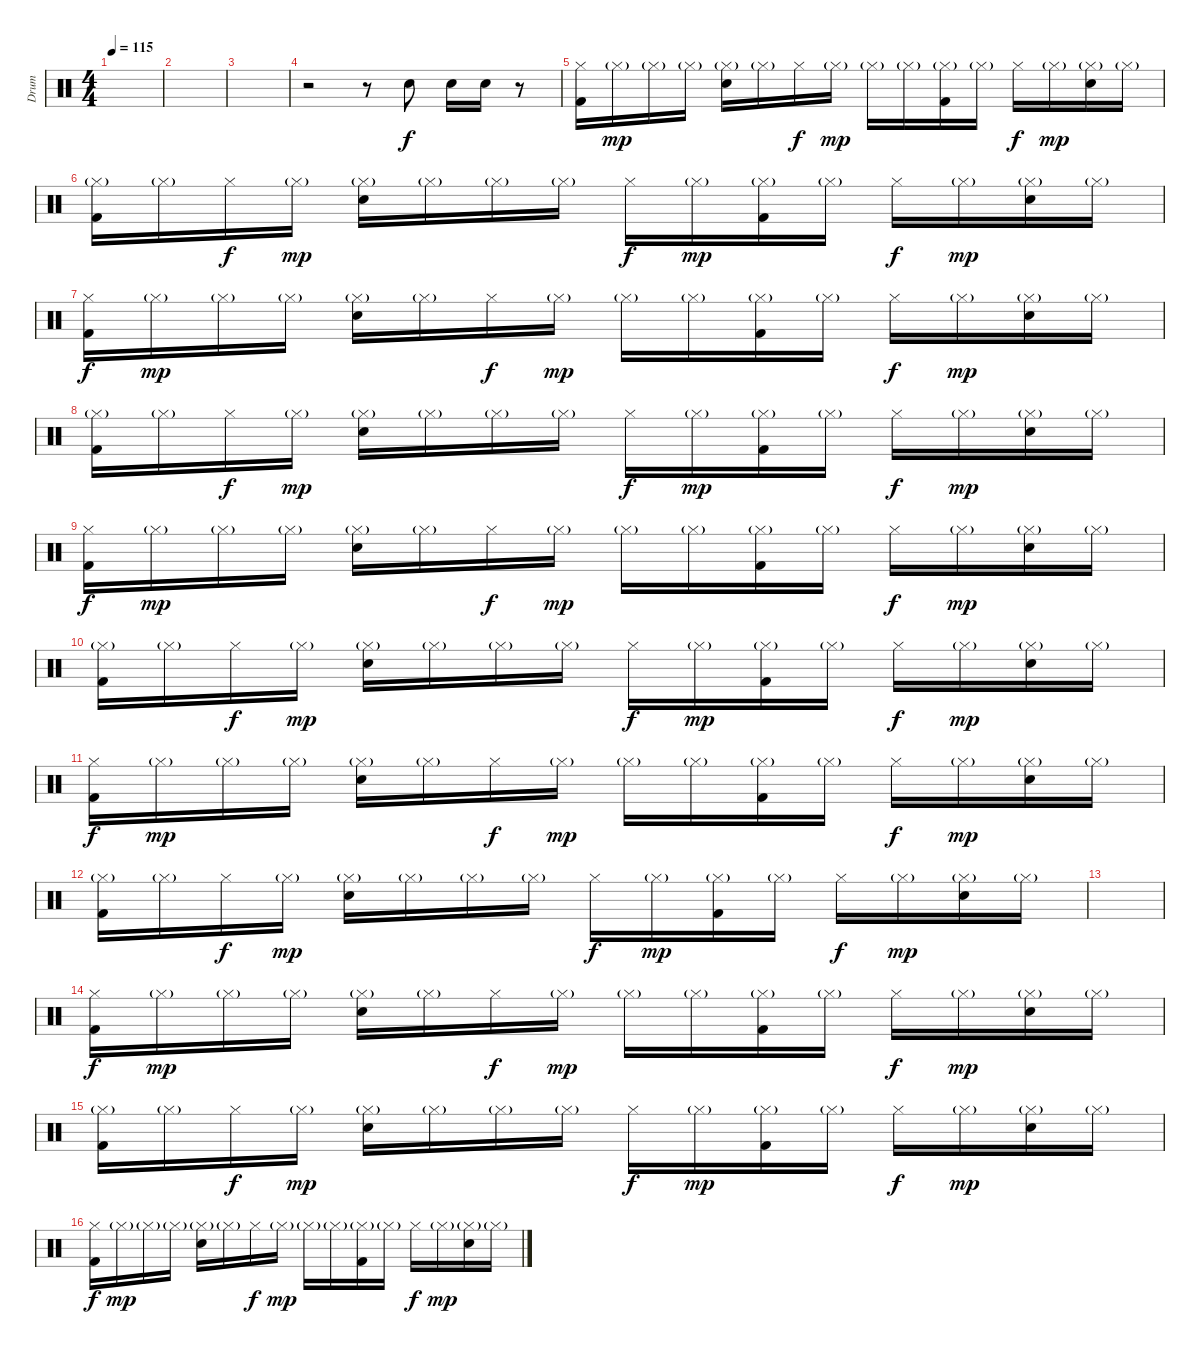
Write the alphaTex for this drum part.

\track ("Drum" "Drum") {instrument percussion}
\staff {score}
\articulation defaults
\ts (4 4)
\tempo 115
\clef neutral
\ks c
|
|
|
r.2 r.8 "Electric Snare (hit)".8 "Electric Snare (hit)".16 "Electric Snare (hit)".16 r.8 |
("Kick (hit) 2" "Hi-Hat (closed)").16 "Hi-Hat (closed)"{g}.16{dy mp} "Hi-Hat (closed)"{g}.16 "Hi-Hat (closed)"{g}.16 ("Electric Snare (hit)" "Hi-Hat (closed)"{g}).16 "Hi-Hat (closed)"{g}.16 "Hi-Hat (closed)".16{dy f} "Hi-Hat (closed)"{g}.16{dy mp} "Hi-Hat (closed)"{g}.16 "Hi-Hat (closed)"{g}.16 ("Kick (hit) 2" "Hi-Hat (closed)"{g}).16 "Hi-Hat (closed)"{g}.16 "Hi-Hat (closed)".16{dy f} "Hi-Hat (closed)"{g}.16{dy mp} ("Electric Snare (hit)" "Hi-Hat (closed)"{g}).16 "Hi-Hat (closed)"{g}.16 |
("Kick (hit) 2" "Hi-Hat (closed)"{g}).16 "Hi-Hat (closed)"{g}.16 "Hi-Hat (closed)".16{dy f} "Hi-Hat (closed)"{g}.16{dy mp} ("Electric Snare (hit)" "Hi-Hat (closed)"{g}).16 "Hi-Hat (closed)"{g}.16 "Hi-Hat (closed)"{g}.16 "Hi-Hat (closed)"{g}.16 "Hi-Hat (closed)".16{dy f} "Hi-Hat (closed)"{g}.16{dy mp} ("Kick (hit) 2" "Hi-Hat (closed)"{g}).16 "Hi-Hat (closed)"{g}.16 "Hi-Hat (closed)".16{dy f} "Hi-Hat (closed)"{g}.16{dy mp} ("Electric Snare (hit)" "Hi-Hat (closed)"{g}).16 "Hi-Hat (closed)"{g}.16 |
("Kick (hit) 2" "Hi-Hat (closed)").16{dy f} "Hi-Hat (closed)"{g}.16{dy mp} "Hi-Hat (closed)"{g}.16 "Hi-Hat (closed)"{g}.16 ("Electric Snare (hit)" "Hi-Hat (closed)"{g}).16 "Hi-Hat (closed)"{g}.16 "Hi-Hat (closed)".16{dy f} "Hi-Hat (closed)"{g}.16{dy mp} "Hi-Hat (closed)"{g}.16 "Hi-Hat (closed)"{g}.16 ("Kick (hit) 2" "Hi-Hat (closed)"{g}).16 "Hi-Hat (closed)"{g}.16 "Hi-Hat (closed)".16{dy f} "Hi-Hat (closed)"{g}.16{dy mp} ("Electric Snare (hit)" "Hi-Hat (closed)"{g}).16 "Hi-Hat (closed)"{g}.16 |
("Kick (hit) 2" "Hi-Hat (closed)"{g}).16 "Hi-Hat (closed)"{g}.16 "Hi-Hat (closed)".16{dy f} "Hi-Hat (closed)"{g}.16{dy mp} ("Electric Snare (hit)" "Hi-Hat (closed)"{g}).16 "Hi-Hat (closed)"{g}.16 "Hi-Hat (closed)"{g}.16 "Hi-Hat (closed)"{g}.16 "Hi-Hat (closed)".16{dy f} "Hi-Hat (closed)"{g}.16{dy mp} ("Kick (hit) 2" "Hi-Hat (closed)"{g}).16 "Hi-Hat (closed)"{g}.16 "Hi-Hat (closed)".16{dy f} "Hi-Hat (closed)"{g}.16{dy mp} ("Electric Snare (hit)" "Hi-Hat (closed)"{g}).16 "Hi-Hat (closed)"{g}.16 |
("Kick (hit) 2" "Hi-Hat (closed)").16{dy f} "Hi-Hat (closed)"{g}.16{dy mp} "Hi-Hat (closed)"{g}.16 "Hi-Hat (closed)"{g}.16 ("Electric Snare (hit)" "Hi-Hat (closed)"{g}).16 "Hi-Hat (closed)"{g}.16 "Hi-Hat (closed)".16{dy f} "Hi-Hat (closed)"{g}.16{dy mp} "Hi-Hat (closed)"{g}.16 "Hi-Hat (closed)"{g}.16 ("Kick (hit) 2" "Hi-Hat (closed)"{g}).16 "Hi-Hat (closed)"{g}.16 "Hi-Hat (closed)".16{dy f} "Hi-Hat (closed)"{g}.16{dy mp} ("Electric Snare (hit)" "Hi-Hat (closed)"{g}).16 "Hi-Hat (closed)"{g}.16 |
("Kick (hit) 2" "Hi-Hat (closed)"{g}).16 "Hi-Hat (closed)"{g}.16 "Hi-Hat (closed)".16{dy f} "Hi-Hat (closed)"{g}.16{dy mp} ("Electric Snare (hit)" "Hi-Hat (closed)"{g}).16 "Hi-Hat (closed)"{g}.16 "Hi-Hat (closed)"{g}.16 "Hi-Hat (closed)"{g}.16 "Hi-Hat (closed)".16{dy f} "Hi-Hat (closed)"{g}.16{dy mp} ("Kick (hit) 2" "Hi-Hat (closed)"{g}).16 "Hi-Hat (closed)"{g}.16 "Hi-Hat (closed)".16{dy f} "Hi-Hat (closed)"{g}.16{dy mp} ("Electric Snare (hit)" "Hi-Hat (closed)"{g}).16 "Hi-Hat (closed)"{g}.16 |
("Kick (hit) 2" "Hi-Hat (closed)").16{dy f} "Hi-Hat (closed)"{g}.16{dy mp} "Hi-Hat (closed)"{g}.16 "Hi-Hat (closed)"{g}.16 ("Electric Snare (hit)" "Hi-Hat (closed)"{g}).16 "Hi-Hat (closed)"{g}.16 "Hi-Hat (closed)".16{dy f} "Hi-Hat (closed)"{g}.16{dy mp} "Hi-Hat (closed)"{g}.16 "Hi-Hat (closed)"{g}.16 ("Kick (hit) 2" "Hi-Hat (closed)"{g}).16 "Hi-Hat (closed)"{g}.16 "Hi-Hat (closed)".16{dy f} "Hi-Hat (closed)"{g}.16{dy mp} ("Electric Snare (hit)" "Hi-Hat (closed)"{g}).16 "Hi-Hat (closed)"{g}.16 |
("Kick (hit) 2" "Hi-Hat (closed)"{g}).16 "Hi-Hat (closed)"{g}.16 "Hi-Hat (closed)".16{dy f} "Hi-Hat (closed)"{g}.16{dy mp} ("Electric Snare (hit)" "Hi-Hat (closed)"{g}).16 "Hi-Hat (closed)"{g}.16 "Hi-Hat (closed)"{g}.16 "Hi-Hat (closed)"{g}.16 "Hi-Hat (closed)".16{dy f} "Hi-Hat (closed)"{g}.16{dy mp} ("Kick (hit) 2" "Hi-Hat (closed)"{g}).16 "Hi-Hat (closed)"{g}.16 "Hi-Hat (closed)".16{dy f} "Hi-Hat (closed)"{g}.16{dy mp} ("Electric Snare (hit)" "Hi-Hat (closed)"{g}).16 "Hi-Hat (closed)"{g}.16 |
|
("Kick (hit) 2" "Hi-Hat (closed)").16{dy f} "Hi-Hat (closed)"{g}.16{dy mp} "Hi-Hat (closed)"{g}.16 "Hi-Hat (closed)"{g}.16 ("Electric Snare (hit)" "Hi-Hat (closed)"{g}).16 "Hi-Hat (closed)"{g}.16 "Hi-Hat (closed)".16{dy f} "Hi-Hat (closed)"{g}.16{dy mp} "Hi-Hat (closed)"{g}.16 "Hi-Hat (closed)"{g}.16 ("Kick (hit) 2" "Hi-Hat (closed)"{g}).16 "Hi-Hat (closed)"{g}.16 "Hi-Hat (closed)".16{dy f} "Hi-Hat (closed)"{g}.16{dy mp} ("Electric Snare (hit)" "Hi-Hat (closed)"{g}).16 "Hi-Hat (closed)"{g}.16 |
("Kick (hit) 2" "Hi-Hat (closed)"{g}).16 "Hi-Hat (closed)"{g}.16 "Hi-Hat (closed)".16{dy f} "Hi-Hat (closed)"{g}.16{dy mp} ("Electric Snare (hit)" "Hi-Hat (closed)"{g}).16 "Hi-Hat (closed)"{g}.16 "Hi-Hat (closed)"{g}.16 "Hi-Hat (closed)"{g}.16 "Hi-Hat (closed)".16{dy f} "Hi-Hat (closed)"{g}.16{dy mp} ("Kick (hit) 2" "Hi-Hat (closed)"{g}).16 "Hi-Hat (closed)"{g}.16 "Hi-Hat (closed)".16{dy f} "Hi-Hat (closed)"{g}.16{dy mp} ("Electric Snare (hit)" "Hi-Hat (closed)"{g}).16 "Hi-Hat (closed)"{g}.16 |
("Kick (hit) 2" "Hi-Hat (closed)").16{dy f} "Hi-Hat (closed)"{g}.16{dy mp} "Hi-Hat (closed)"{g}.16 "Hi-Hat (closed)"{g}.16 ("Electric Snare (hit)" "Hi-Hat (closed)"{g}).16 "Hi-Hat (closed)"{g}.16 "Hi-Hat (closed)".16{dy f} "Hi-Hat (closed)"{g}.16{dy mp} "Hi-Hat (closed)"{g}.16 "Hi-Hat (closed)"{g}.16 ("Kick (hit) 2" "Hi-Hat (closed)"{g}).16 "Hi-Hat (closed)"{g}.16 "Hi-Hat (closed)".16{dy f} "Hi-Hat (closed)"{g}.16{dy mp} ("Electric Snare (hit)" "Hi-Hat (closed)"{g}).16 "Hi-Hat (closed)"{g}.16
